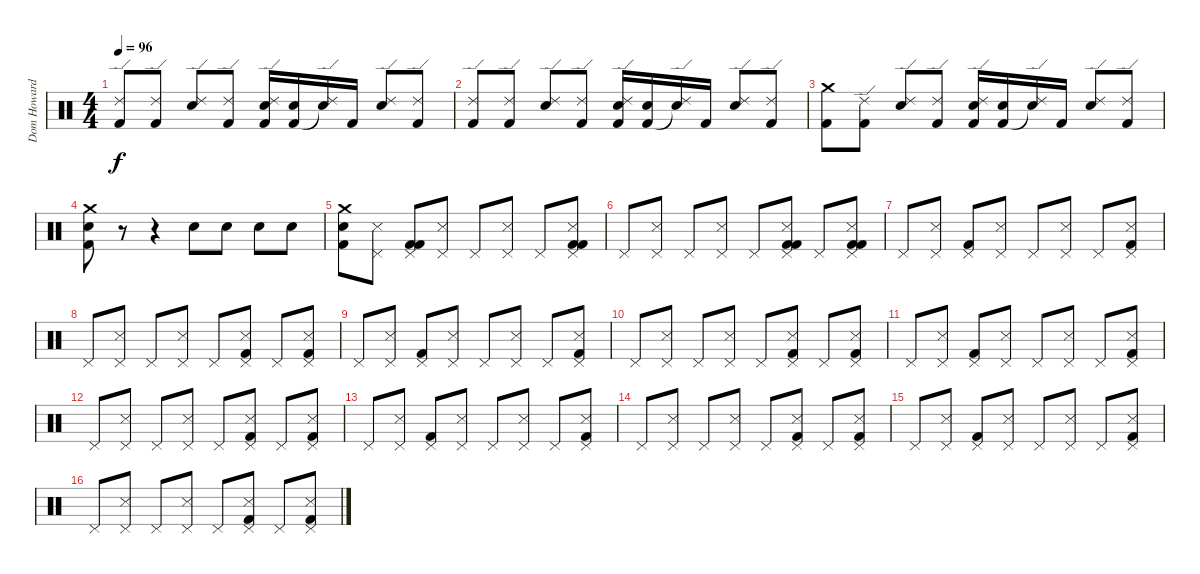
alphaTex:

\track ("Dom Howard" "Dom Howard") {instrument percussion}
\staff {score}
\articulation defaults
\ts (4 4)
\tempo 96
\clef neutral
\ks c
("Ride (edge) 2" "Kick (hit) 2").8{dy f} ("Ride (edge) 2" "Kick (hit) 2").8 ("Ride (edge) 2" "Electric Snare (hit)").8 ("Ride (edge) 2" "Kick (hit) 2").8 ("Ride (edge) 2" "Electric Snare (hit)" "Kick (hit) 2").16 ("Electric Snare (hit)" "Kick (hit) 2").16 ("Ride (edge) 2" "Snare (hit)"{t}).16 "Kick (hit) 2".16 ("Ride (edge) 2" "Electric Snare (hit)").8 ("Ride (edge) 2" "Kick (hit) 2").8 |
("Ride (edge) 2" "Kick (hit) 2").8 ("Ride (edge) 2" "Kick (hit) 2").8 ("Ride (edge) 2" "Electric Snare (hit)").8 ("Ride (edge) 2" "Kick (hit) 2").8 ("Ride (edge) 2" "Electric Snare (hit)" "Kick (hit) 2").16 ("Electric Snare (hit)" "Kick (hit) 2").16 ("Ride (edge) 2" "Snare (hit)"{t}).16 "Kick (hit) 2".16 ("Ride (edge) 2" "Electric Snare (hit)").8 ("Ride (edge) 2" "Kick (hit) 2").8 |
("Crash medium (hit)" "Kick (hit) 2").8 ("Ride (edge) 2" "Kick (hit) 2").8 ("Ride (edge) 2" "Electric Snare (hit)").8 ("Ride (edge) 2" "Kick (hit) 2").8 ("Ride (edge) 2" "Electric Snare (hit)" "Kick (hit) 2").16 ("Electric Snare (hit)" "Kick (hit) 2").16 ("Ride (edge) 2" "Snare (hit)"{t}).16 "Kick (hit) 2".16 ("Ride (edge) 2" "Electric Snare (hit)").8 ("Ride (edge) 2" "Kick (hit) 2").8 |
("Crash medium (hit)" "Electric Snare (hit)" "Kick (hit) 2").8 r.8 r.4 "Electric Snare (hit)".8 "Electric Snare (hit)".8 "Electric Snare (hit)".8 "Electric Snare (hit)".8 |
("Crash medium (hit)" "Electric Snare (hit)" "Kick (hit) 2").8 ("Pedal Hi-Hat (hit)" "Snare (side stick) 3").8 ("Pedal Hi-Hat (hit)" "Kick (hit) 2" "Kick (hit) 2").8 ("Pedal Hi-Hat (hit)" "Snare (side stick) 3").8 "Pedal Hi-Hat (hit)".8 ("Pedal Hi-Hat (hit)" "Snare (side stick) 3").8 "Pedal Hi-Hat (hit)".8 ("Pedal Hi-Hat (hit)" "Snare (side stick) 3" "Kick (hit) 2" "Kick (hit) 2").8 |
"Pedal Hi-Hat (hit)".8 ("Pedal Hi-Hat (hit)" "Snare (side stick) 3").8 "Pedal Hi-Hat (hit)".8 ("Pedal Hi-Hat (hit)" "Snare (side stick) 3").8 "Pedal Hi-Hat (hit)".8 ("Pedal Hi-Hat (hit)" "Snare (side stick) 3" "Kick (hit) 2" "Kick (hit) 2").8 "Pedal Hi-Hat (hit)".8 ("Pedal Hi-Hat (hit)" "Snare (side stick) 3" "Kick (hit) 2" "Kick (hit) 2").8 |
"Pedal Hi-Hat (hit)".8 ("Pedal Hi-Hat (hit)" "Snare (side stick) 3").8 ("Pedal Hi-Hat (hit)" "Kick (hit) 2").8 ("Pedal Hi-Hat (hit)" "Snare (side stick) 3").8 "Pedal Hi-Hat (hit)".8 ("Pedal Hi-Hat (hit)" "Snare (side stick) 3").8 "Pedal Hi-Hat (hit)".8 ("Pedal Hi-Hat (hit)" "Snare (side stick) 3" "Kick (hit) 2").8 |
"Pedal Hi-Hat (hit)".8 ("Pedal Hi-Hat (hit)" "Snare (side stick) 3").8 "Pedal Hi-Hat (hit)".8 ("Pedal Hi-Hat (hit)" "Snare (side stick) 3").8 "Pedal Hi-Hat (hit)".8 ("Pedal Hi-Hat (hit)" "Snare (side stick) 3" "Kick (hit) 2").8 "Pedal Hi-Hat (hit)".8 ("Pedal Hi-Hat (hit)" "Snare (side stick) 3" "Kick (hit) 2").8 |
"Pedal Hi-Hat (hit)".8 ("Pedal Hi-Hat (hit)" "Snare (side stick) 3").8 ("Pedal Hi-Hat (hit)" "Kick (hit) 2").8 ("Pedal Hi-Hat (hit)" "Snare (side stick) 3").8 "Pedal Hi-Hat (hit)".8 ("Pedal Hi-Hat (hit)" "Snare (side stick) 3").8 "Pedal Hi-Hat (hit)".8 ("Pedal Hi-Hat (hit)" "Snare (side stick) 3" "Kick (hit) 2").8 |
"Pedal Hi-Hat (hit)".8 ("Pedal Hi-Hat (hit)" "Snare (side stick) 3").8 "Pedal Hi-Hat (hit)".8 ("Pedal Hi-Hat (hit)" "Snare (side stick) 3").8 "Pedal Hi-Hat (hit)".8 ("Pedal Hi-Hat (hit)" "Snare (side stick) 3" "Kick (hit) 2").8 "Pedal Hi-Hat (hit)".8 ("Pedal Hi-Hat (hit)" "Snare (side stick) 3" "Kick (hit) 2").8 |
"Pedal Hi-Hat (hit)".8 ("Pedal Hi-Hat (hit)" "Snare (side stick) 3").8 ("Pedal Hi-Hat (hit)" "Kick (hit) 2").8 ("Pedal Hi-Hat (hit)" "Snare (side stick) 3").8 "Pedal Hi-Hat (hit)".8 ("Pedal Hi-Hat (hit)" "Snare (side stick) 3").8 "Pedal Hi-Hat (hit)".8 ("Pedal Hi-Hat (hit)" "Snare (side stick) 3" "Kick (hit) 2").8 |
"Pedal Hi-Hat (hit)".8 ("Pedal Hi-Hat (hit)" "Snare (side stick) 3").8 "Pedal Hi-Hat (hit)".8 ("Pedal Hi-Hat (hit)" "Snare (side stick) 3").8 "Pedal Hi-Hat (hit)".8 ("Pedal Hi-Hat (hit)" "Snare (side stick) 3" "Kick (hit) 2").8 "Pedal Hi-Hat (hit)".8 ("Pedal Hi-Hat (hit)" "Snare (side stick) 3" "Kick (hit) 2").8 |
"Pedal Hi-Hat (hit)".8 ("Pedal Hi-Hat (hit)" "Snare (side stick) 3").8 ("Pedal Hi-Hat (hit)" "Kick (hit) 2").8 ("Pedal Hi-Hat (hit)" "Snare (side stick) 3").8 "Pedal Hi-Hat (hit)".8 ("Pedal Hi-Hat (hit)" "Snare (side stick) 3").8 "Pedal Hi-Hat (hit)".8 ("Pedal Hi-Hat (hit)" "Snare (side stick) 3" "Kick (hit) 2").8 |
"Pedal Hi-Hat (hit)".8 ("Pedal Hi-Hat (hit)" "Snare (side stick) 3").8 "Pedal Hi-Hat (hit)".8 ("Pedal Hi-Hat (hit)" "Snare (side stick) 3").8 "Pedal Hi-Hat (hit)".8 ("Pedal Hi-Hat (hit)" "Snare (side stick) 3" "Kick (hit) 2").8 "Pedal Hi-Hat (hit)".8 ("Pedal Hi-Hat (hit)" "Snare (side stick) 3" "Kick (hit) 2").8 |
"Pedal Hi-Hat (hit)".8 ("Pedal Hi-Hat (hit)" "Snare (side stick) 3").8 ("Pedal Hi-Hat (hit)" "Kick (hit) 2").8 ("Pedal Hi-Hat (hit)" "Snare (side stick) 3").8 "Pedal Hi-Hat (hit)".8 ("Pedal Hi-Hat (hit)" "Snare (side stick) 3").8 "Pedal Hi-Hat (hit)".8 ("Pedal Hi-Hat (hit)" "Snare (side stick) 3" "Kick (hit) 2").8 |
"Pedal Hi-Hat (hit)".8 ("Pedal Hi-Hat (hit)" "Snare (side stick) 3").8 "Pedal Hi-Hat (hit)".8 ("Pedal Hi-Hat (hit)" "Snare (side stick) 3").8 "Pedal Hi-Hat (hit)".8 ("Pedal Hi-Hat (hit)" "Snare (side stick) 3" "Kick (hit) 2").8 "Pedal Hi-Hat (hit)".8 ("Pedal Hi-Hat (hit)" "Snare (side stick) 3" "Kick (hit) 2").8
